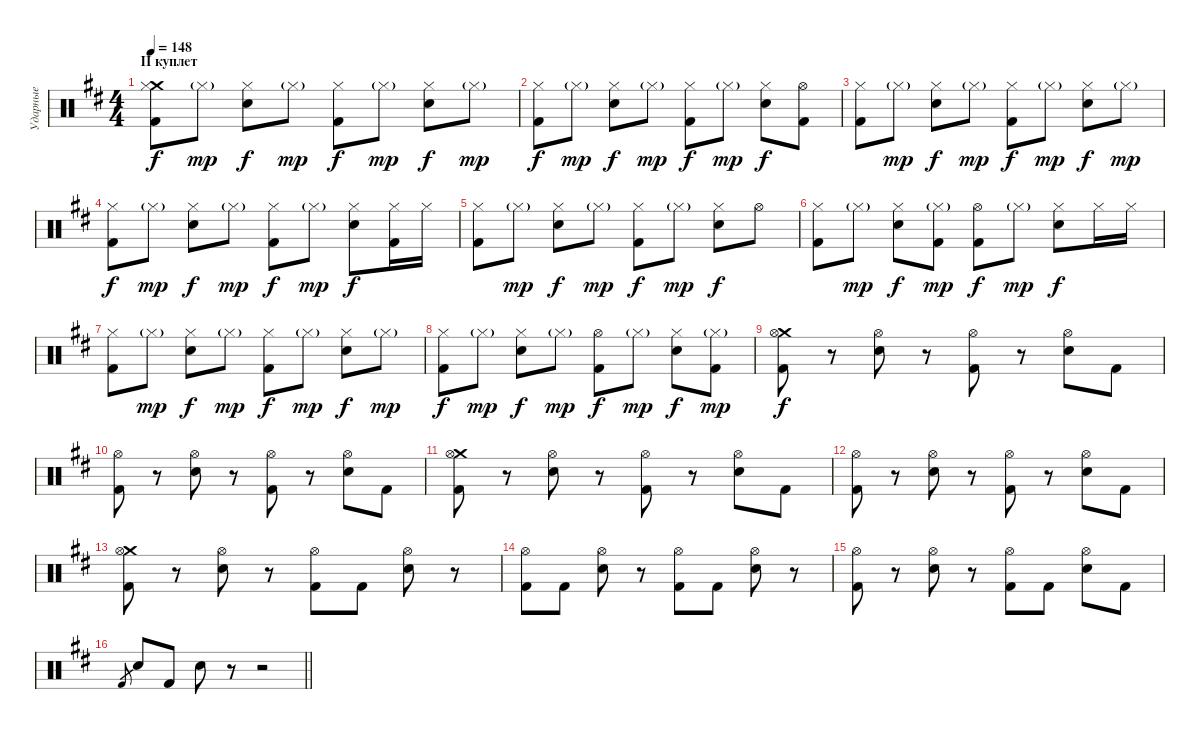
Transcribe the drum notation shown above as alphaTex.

\track ("Ударные" "Ударные") {instrument percussion}
\staff {score}
\articulation defaults
\ts (4 4)
\section ("" "II куплет")
\tempo 148
\clef neutral
\ks bminor
("Crash medium (hit)" "Kick (hit) 2" "Hi-Hat (closed)").8{dy f} "Hi-Hat (closed)"{g}.8{dy mp} ("Electric Snare (hit)" "Hi-Hat (closed)").8{dy f} "Hi-Hat (closed)"{g}.8{dy mp} ("Kick (hit) 2" "Hi-Hat (closed)").8{dy f} "Hi-Hat (closed)"{g}.8{dy mp} ("Electric Snare (hit)" "Hi-Hat (closed)").8{dy f} "Hi-Hat (closed)"{g}.8{dy mp} |
("Kick (hit) 2" "Hi-Hat (closed)").8{dy f} "Hi-Hat (closed)"{g}.8{dy mp} ("Electric Snare (hit)" "Hi-Hat (closed)").8{dy f} "Hi-Hat (closed)"{g}.8{dy mp} ("Kick (hit) 2" "Hi-Hat (closed)").8{dy f} "Hi-Hat (closed)"{g}.8{dy mp} ("Electric Snare (hit)" "Hi-Hat (closed)").8{dy f} ("Kick (hit) 2" "Hi-Hat (open)").8 |
("Kick (hit) 2" "Hi-Hat (closed)").8 "Hi-Hat (closed)"{g}.8{dy mp} ("Electric Snare (hit)" "Hi-Hat (closed)").8{dy f} "Hi-Hat (closed)"{g}.8{dy mp} ("Kick (hit) 2" "Hi-Hat (closed)").8{dy f} "Hi-Hat (closed)"{g}.8{dy mp} ("Electric Snare (hit)" "Hi-Hat (closed)").8{dy f} "Hi-Hat (closed)"{g}.8{dy mp} |
("Kick (hit) 2" "Hi-Hat (closed)").8{dy f} "Hi-Hat (closed)"{g}.8{dy mp} ("Electric Snare (hit)" "Hi-Hat (closed)").8{dy f} "Hi-Hat (closed)"{g}.8{dy mp} ("Kick (hit) 2" "Hi-Hat (closed)").8{dy f} "Hi-Hat (closed)"{g}.8{dy mp} ("Electric Snare (hit)" "Hi-Hat (closed)").8{dy f} ("Kick (hit) 2" "Hi-Hat (closed)").16 "Hi-Hat (closed)".16 |
("Kick (hit) 2" "Hi-Hat (closed)").8 "Hi-Hat (closed)"{g}.8{dy mp} ("Electric Snare (hit)" "Hi-Hat (closed)").8{dy f} "Hi-Hat (closed)"{g}.8{dy mp} ("Kick (hit) 2" "Hi-Hat (closed)").8{dy f} "Hi-Hat (closed)"{g}.8{dy mp} ("Electric Snare (hit)" "Hi-Hat (closed)").8{dy f} "Hi-Hat (open)".8 |
("Kick (hit) 2" "Hi-Hat (closed)").8 "Hi-Hat (closed)"{g}.8{dy mp} ("Electric Snare (hit)" "Hi-Hat (closed)").8{dy f} ("Kick (hit) 2" "Hi-Hat (closed)"{g}).8{dy mp} ("Kick (hit) 2" "Hi-Hat (open)").8{dy f} "Hi-Hat (closed)"{g}.8{dy mp} ("Electric Snare (hit)" "Hi-Hat (closed)").8{dy f} "Hi-Hat (closed)".16 "Hi-Hat (closed)".16 |
("Kick (hit) 2" "Hi-Hat (closed)").8 "Hi-Hat (closed)"{g}.8{dy mp} ("Electric Snare (hit)" "Hi-Hat (closed)").8{dy f} "Hi-Hat (closed)"{g}.8{dy mp} ("Kick (hit) 2" "Hi-Hat (closed)").8{dy f} "Hi-Hat (closed)"{g}.8{dy mp} ("Electric Snare (hit)" "Hi-Hat (closed)").8{dy f} "Hi-Hat (closed)"{g}.8{dy mp} |
("Kick (hit) 2" "Hi-Hat (closed)").8{dy f} "Hi-Hat (closed)"{g}.8{dy mp} ("Electric Snare (hit)" "Hi-Hat (closed)").8{dy f} "Hi-Hat (closed)"{g}.8{dy mp} ("Kick (hit) 2" "Hi-Hat (open)").8{dy f} "Hi-Hat (closed)"{g}.8{dy mp} ("Electric Snare (hit)" "Hi-Hat (closed)").8{dy f} ("Kick (hit) 2" "Hi-Hat (closed)"{g}).8{dy mp} |
("Crash medium (hit)" "Kick (hit) 2" "Hi-Hat (open)").8{dy f} r.8 ("Electric Snare (hit)" "Hi-Hat (open)").8 r.8 ("Kick (hit) 2" "Hi-Hat (open)").8 r.8 ("Electric Snare (hit)" "Hi-Hat (open)").8 "Kick (hit) 2".8 |
("Kick (hit) 2" "Hi-Hat (open)").8 r.8 ("Electric Snare (hit)" "Hi-Hat (open)").8 r.8 ("Kick (hit) 2" "Hi-Hat (open)").8 r.8 ("Electric Snare (hit)" "Hi-Hat (open)").8 "Kick (hit) 2".8 |
("Crash medium (hit)" "Kick (hit) 2" "Hi-Hat (open)").8 r.8 ("Electric Snare (hit)" "Hi-Hat (open)").8 r.8 ("Kick (hit) 2" "Hi-Hat (open)").8 r.8 ("Electric Snare (hit)" "Hi-Hat (open)").8 "Kick (hit) 2".8 |
("Kick (hit) 2" "Hi-Hat (open)").8 r.8 ("Electric Snare (hit)" "Hi-Hat (open)").8 r.8 ("Kick (hit) 2" "Hi-Hat (open)").8 r.8 ("Electric Snare (hit)" "Hi-Hat (open)").8 "Kick (hit) 2".8 |
("Crash medium (hit)" "Kick (hit) 2" "Hi-Hat (open)").8 r.8 ("Electric Snare (hit)" "Hi-Hat (open)").8 r.8 ("Kick (hit) 2" "Hi-Hat (open)").8 "Kick (hit) 2".8 ("Electric Snare (hit)" "Hi-Hat (open)").8 r.8 |
("Kick (hit) 2" "Hi-Hat (open)").8 "Kick (hit) 2".8 ("Electric Snare (hit)" "Hi-Hat (open)").8 r.8 ("Kick (hit) 2" "Hi-Hat (open)").8 "Kick (hit) 2".8 ("Electric Snare (hit)" "Hi-Hat (open)").8 r.8 |
("Kick (hit) 2" "Hi-Hat (open)").8 r.8 ("Electric Snare (hit)" "Hi-Hat (open)").8 r.8 ("Kick (hit) 2" "Hi-Hat (open)").8 "Kick (hit) 2".8 ("Electric Snare (hit)" "Hi-Hat (open)").8 "Kick (hit) 2".8 |
\barLineRight lightlight "Kick (hit) 2".8{gr} "Electric Snare (hit)".8 "Kick (hit) 2".8 "Electric Snare (hit)".8
r.8 r.2
